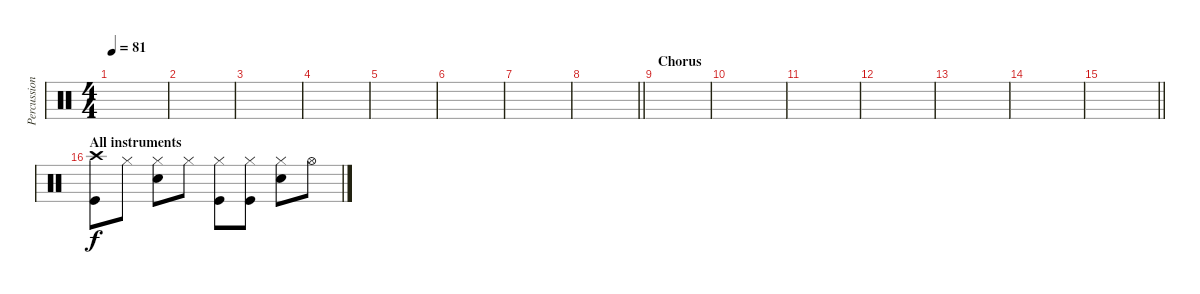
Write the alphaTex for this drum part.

\track ("Percussion" "Percussion") {instrument percussion}
\staff {score}
\articulation defaults
\ts (4 4)
\tempo 81
\clef neutral
\ks c
|
|
|
|
|
|
|
\barLineRight lightlight
|
\section ("" "Chorus")
|
|
|
|
|
|
\barLineRight lightlight
|
\section ("" "All instruments")
("Crash high (hit)" "Kick (hit)").8 "Hi-Hat (closed)".8 ("Hi-Hat (closed)" "Snare (hit) 2").8 "Hi-Hat (closed)".8 ("Hi-Hat (closed)" "Kick (hit)").8 ("Hi-Hat (closed)" "Kick (hit)").8 ("Hi-Hat (closed)" "Snare (hit) 2").8 "Hi-Hat (open)".8
